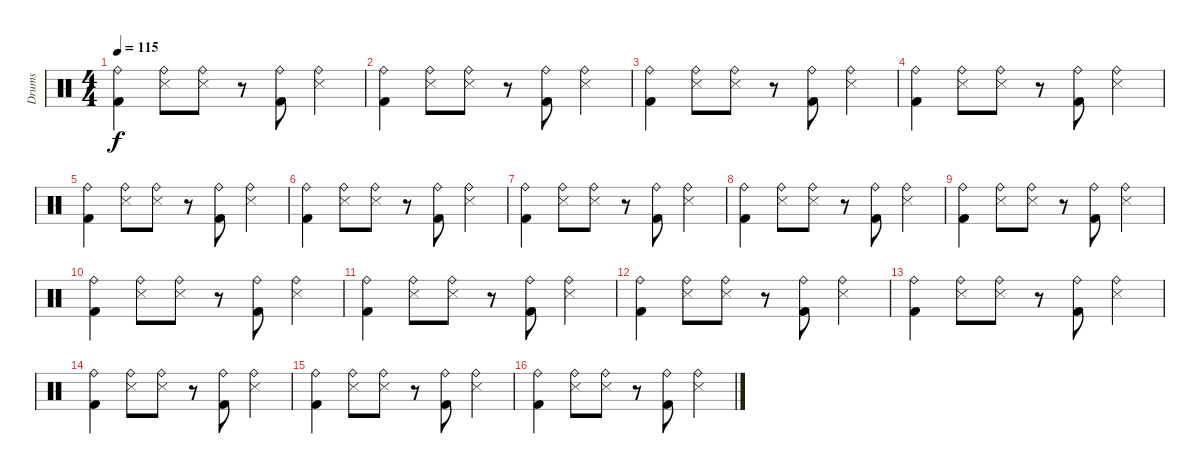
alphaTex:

\track ("Drums" "Drums") {instrument percussion}
\staff {score}
\articulation defaults
\ts (4 4)
\tempo 115
\clef neutral
\ks c
("Ride (bell)" "Kick (hit) 2").4{dy f} ("Ride (bell)" "Snare (side stick) 3").8 ("Ride (bell)" "Snare (side stick) 3").8 r.8 ("Ride (bell)" "Kick (hit) 2").8 ("Ride (bell)" "Snare (side stick) 3").4 |
("Ride (bell)" "Kick (hit) 2").4 ("Ride (bell)" "Snare (side stick) 3").8 ("Ride (bell)" "Snare (side stick) 3").8 r.8 ("Ride (bell)" "Kick (hit) 2").8 ("Ride (bell)" "Snare (side stick) 3").4 |
("Ride (bell)" "Kick (hit) 2").4 ("Ride (bell)" "Snare (side stick) 3").8 ("Ride (bell)" "Snare (side stick) 3").8 r.8 ("Ride (bell)" "Kick (hit) 2").8 ("Ride (bell)" "Snare (side stick) 3").4 |
("Ride (bell)" "Kick (hit) 2").4 ("Ride (bell)" "Snare (side stick) 3").8 ("Ride (bell)" "Snare (side stick) 3").8 r.8 ("Ride (bell)" "Kick (hit) 2").8 ("Ride (bell)" "Snare (side stick) 3").4 |
("Ride (bell)" "Kick (hit) 2").4 ("Ride (bell)" "Snare (side stick) 3").8 ("Ride (bell)" "Snare (side stick) 3").8 r.8 ("Ride (bell)" "Kick (hit) 2").8 ("Ride (bell)" "Snare (side stick) 3").4 |
("Ride (bell)" "Kick (hit) 2").4 ("Ride (bell)" "Snare (side stick) 3").8 ("Ride (bell)" "Snare (side stick) 3").8 r.8 ("Ride (bell)" "Kick (hit) 2").8 ("Ride (bell)" "Snare (side stick) 3").4 |
("Ride (bell)" "Kick (hit) 2").4 ("Ride (bell)" "Snare (side stick) 3").8 ("Ride (bell)" "Snare (side stick) 3").8 r.8 ("Ride (bell)" "Kick (hit) 2").8 ("Ride (bell)" "Snare (side stick) 3").4 |
("Ride (bell)" "Kick (hit) 2").4 ("Ride (bell)" "Snare (side stick) 3").8 ("Ride (bell)" "Snare (side stick) 3").8 r.8 ("Ride (bell)" "Kick (hit) 2").8 ("Ride (bell)" "Snare (side stick) 3").4 |
("Ride (bell)" "Kick (hit) 2").4 ("Ride (bell)" "Snare (side stick) 3").8 ("Ride (bell)" "Snare (side stick) 3").8 r.8 ("Ride (bell)" "Kick (hit) 2").8 ("Ride (bell)" "Snare (side stick) 3").4 |
("Ride (bell)" "Kick (hit) 2").4 ("Ride (bell)" "Snare (side stick) 3").8 ("Ride (bell)" "Snare (side stick) 3").8 r.8 ("Ride (bell)" "Kick (hit) 2").8 ("Ride (bell)" "Snare (side stick) 3").4 |
("Ride (bell)" "Kick (hit) 2").4 ("Ride (bell)" "Snare (side stick) 3").8 ("Ride (bell)" "Snare (side stick) 3").8 r.8 ("Ride (bell)" "Kick (hit) 2").8 ("Ride (bell)" "Snare (side stick) 3").4 |
("Ride (bell)" "Kick (hit) 2").4 ("Ride (bell)" "Snare (side stick) 3").8 ("Ride (bell)" "Snare (side stick) 3").8 r.8 ("Ride (bell)" "Kick (hit) 2").8 ("Ride (bell)" "Snare (side stick) 3").4 |
("Ride (bell)" "Kick (hit) 2").4 ("Ride (bell)" "Snare (side stick) 3").8 ("Ride (bell)" "Snare (side stick) 3").8 r.8 ("Ride (bell)" "Kick (hit) 2").8 ("Ride (bell)" "Snare (side stick) 3").4 |
("Ride (bell)" "Kick (hit) 2").4 ("Ride (bell)" "Snare (side stick) 3").8 ("Ride (bell)" "Snare (side stick) 3").8 r.8 ("Ride (bell)" "Kick (hit) 2").8 ("Ride (bell)" "Snare (side stick) 3").4 |
("Ride (bell)" "Kick (hit) 2").4 ("Ride (bell)" "Snare (side stick) 3").8 ("Ride (bell)" "Snare (side stick) 3").8 r.8 ("Ride (bell)" "Kick (hit) 2").8 ("Ride (bell)" "Snare (side stick) 3").4 |
("Ride (bell)" "Kick (hit) 2").4 ("Ride (bell)" "Snare (side stick) 3").8 ("Ride (bell)" "Snare (side stick) 3").8 r.8 ("Ride (bell)" "Kick (hit) 2").8 ("Ride (bell)" "Snare (side stick) 3").4
